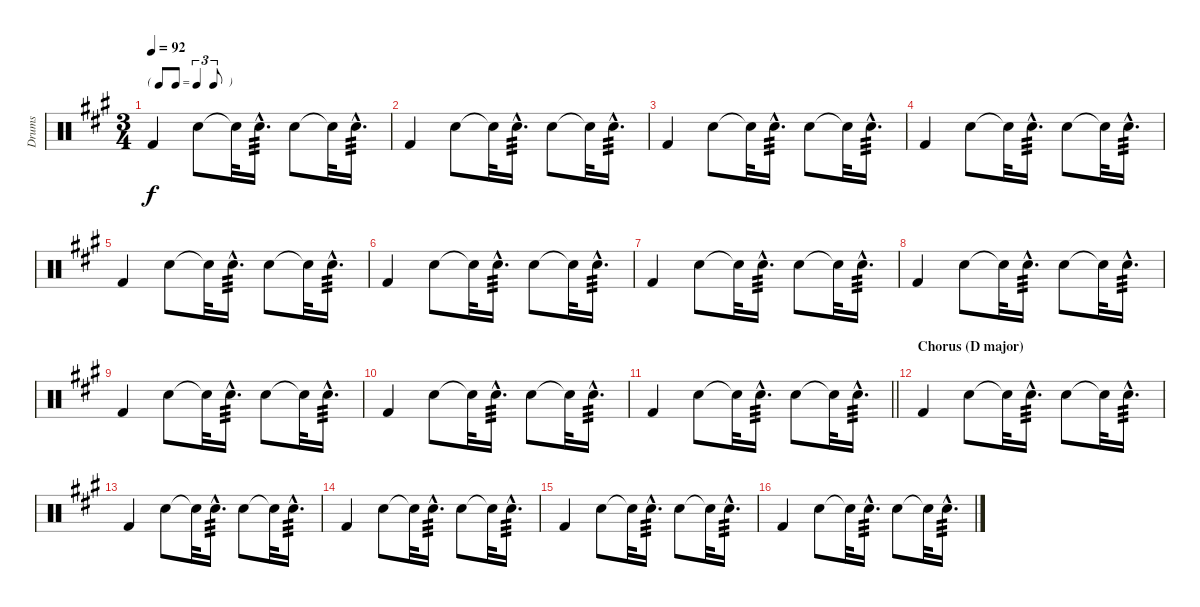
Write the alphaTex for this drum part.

\track ("Drums" "Drums") {instrument percussion}
\staff {score}
\articulation defaults
\ts (3 4)
\tf triplet8th
\tempo 92
\clef neutral
\ks a "Kick (hit) 2".4{dy f} "Snare (hit) 2".8{balance 0} "Snare (hit) 2"{t}.32 "Snare (hit) 2"{hac}.16{d tp 3 balance 16} "Snare (hit) 2".8{balance 0} "Snare (hit) 2"{t}.32 "Snare (hit) 2"{hac}.16{d tp 3 balance 16}
|
"Kick (hit) 2".4 "Snare (hit) 2".8{balance 0} "Snare (hit) 2"{t}.32 "Snare (hit) 2"{hac}.16{d tp 3 balance 16} "Snare (hit) 2".8{balance 0} "Snare (hit) 2"{t}.32 "Snare (hit) 2"{hac}.16{d tp 3 balance 16} |
"Kick (hit) 2".4 "Snare (hit) 2".8{balance 0} "Snare (hit) 2"{t}.32 "Snare (hit) 2"{hac}.16{d tp 3 balance 16} "Snare (hit) 2".8{balance 0} "Snare (hit) 2"{t}.32 "Snare (hit) 2"{hac}.16{d tp 3 balance 16} |
"Kick (hit) 2".4 "Snare (hit) 2".8{balance 0} "Snare (hit) 2"{t}.32 "Snare (hit) 2"{hac}.16{d tp 3 balance 16} "Snare (hit) 2".8{balance 0} "Snare (hit) 2"{t}.32 "Snare (hit) 2"{hac}.16{d tp 3 balance 16} |
"Kick (hit) 2".4 "Snare (hit) 2".8{balance 0} "Snare (hit) 2"{t}.32 "Snare (hit) 2"{hac}.16{d tp 3 balance 16} "Snare (hit) 2".8{balance 0} "Snare (hit) 2"{t}.32 "Snare (hit) 2"{hac}.16{d tp 3 balance 16} |
"Kick (hit) 2".4 "Snare (hit) 2".8{balance 0} "Snare (hit) 2"{t}.32 "Snare (hit) 2"{hac}.16{d tp 3 balance 16} "Snare (hit) 2".8{balance 0} "Snare (hit) 2"{t}.32 "Snare (hit) 2"{hac}.16{d tp 3 balance 16} |
"Kick (hit) 2".4 "Snare (hit) 2".8{balance 0} "Snare (hit) 2"{t}.32 "Snare (hit) 2"{hac}.16{d tp 3 balance 16} "Snare (hit) 2".8{balance 0} "Snare (hit) 2"{t}.32 "Snare (hit) 2"{hac}.16{d tp 3 balance 16} |
"Kick (hit) 2".4 "Snare (hit) 2".8{balance 0} "Snare (hit) 2"{t}.32 "Snare (hit) 2"{hac}.16{d tp 3 balance 16} "Snare (hit) 2".8{balance 0} "Snare (hit) 2"{t}.32 "Snare (hit) 2"{hac}.16{d tp 3 balance 16} |
"Kick (hit) 2".4 "Snare (hit) 2".8{balance 0} "Snare (hit) 2"{t}.32 "Snare (hit) 2"{hac}.16{d tp 3 balance 16} "Snare (hit) 2".8{balance 0} "Snare (hit) 2"{t}.32 "Snare (hit) 2"{hac}.16{d tp 3 balance 16} |
"Kick (hit) 2".4 "Snare (hit) 2".8{balance 0} "Snare (hit) 2"{t}.32 "Snare (hit) 2"{hac}.16{d tp 3 balance 16} "Snare (hit) 2".8{balance 0} "Snare (hit) 2"{t}.32 "Snare (hit) 2"{hac}.16{d tp 3 balance 16} |
\barLineRight lightlight "Kick (hit) 2".4 "Snare (hit) 2".8{balance 0} "Snare (hit) 2"{t}.32 "Snare (hit) 2"{hac}.16{d tp 3 balance 16} "Snare (hit) 2".8{balance 0} "Snare (hit) 2"{t}.32 "Snare (hit) 2"{hac}.16{d tp 3 balance 16}
|
\section ("" "Chorus (D major)")
"Kick (hit) 2".4 "Snare (hit) 2".8{balance 0} "Snare (hit) 2"{t}.32 "Snare (hit) 2"{hac}.16{d tp 3 balance 16} "Snare (hit) 2".8{balance 0} "Snare (hit) 2"{t}.32 "Snare (hit) 2"{hac}.16{d tp 3 balance 16} |
"Kick (hit) 2".4 "Snare (hit) 2".8{balance 0} "Snare (hit) 2"{t}.32 "Snare (hit) 2"{hac}.16{d tp 3 balance 16} "Snare (hit) 2".8{balance 0} "Snare (hit) 2"{t}.32 "Snare (hit) 2"{hac}.16{d tp 3 balance 16} |
"Kick (hit) 2".4 "Snare (hit) 2".8{balance 0} "Snare (hit) 2"{t}.32 "Snare (hit) 2"{hac}.16{d tp 3 balance 16} "Snare (hit) 2".8{balance 0} "Snare (hit) 2"{t}.32 "Snare (hit) 2"{hac}.16{d tp 3 balance 16} |
"Kick (hit) 2".4 "Snare (hit) 2".8{balance 0} "Snare (hit) 2"{t}.32 "Snare (hit) 2"{hac}.16{d tp 3 balance 16} "Snare (hit) 2".8{balance 0} "Snare (hit) 2"{t}.32 "Snare (hit) 2"{hac}.16{d tp 3 balance 16} |
"Kick (hit) 2".4 "Snare (hit) 2".8{balance 0} "Snare (hit) 2"{t}.32 "Snare (hit) 2"{hac}.16{d tp 3 balance 16} "Snare (hit) 2".8{balance 0} "Snare (hit) 2"{t}.32 "Snare (hit) 2"{hac}.16{d tp 3 balance 16}
